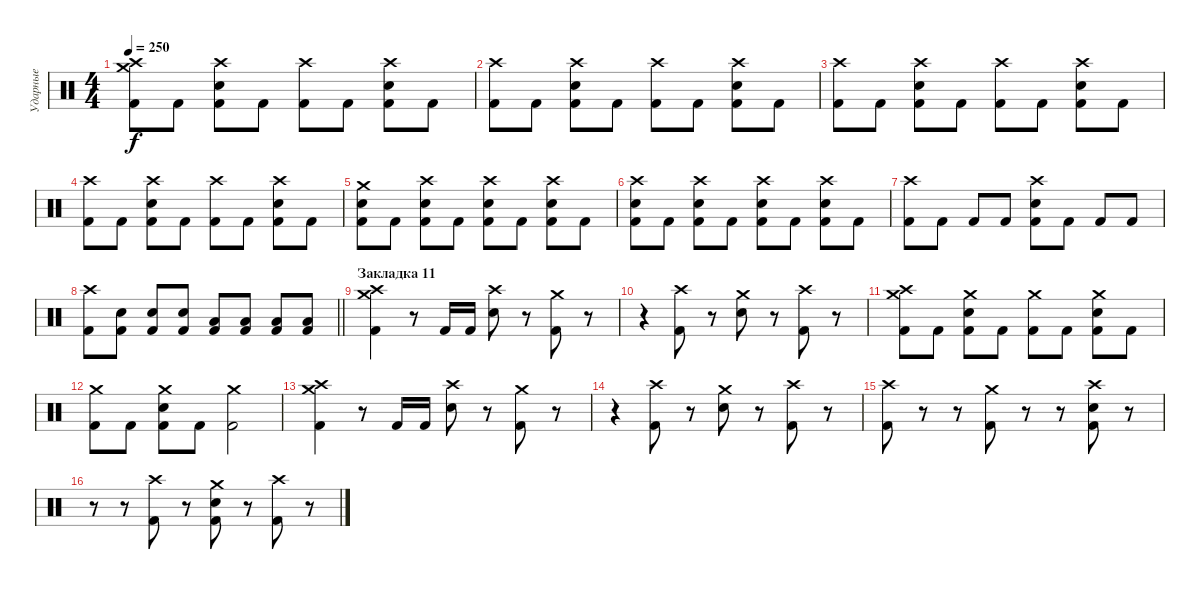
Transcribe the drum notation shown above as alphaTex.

\track ("Ударные" "Ударные") {instrument percussion}
\staff {score}
\articulation defaults
\ts (4 4)
\tempo 250
\clef neutral
\ks c
("Crash medium (hit)" "Crash high (hit)" "Kick (hit) 2").8{dy f} "Kick (hit) 2".8 ("Crash high (hit)" "Electric Snare (hit)" "Kick (hit) 2").8 "Kick (hit) 2".8 ("Crash high (hit)" "Kick (hit) 2").8 "Kick (hit) 2".8 ("Crash high (hit)" "Electric Snare (hit)" "Kick (hit) 2").8 "Kick (hit) 2".8 |
("Crash high (hit)" "Kick (hit) 2").8 "Kick (hit) 2".8 ("Crash high (hit)" "Electric Snare (hit)" "Kick (hit) 2").8 "Kick (hit) 2".8 ("Crash high (hit)" "Kick (hit) 2").8 "Kick (hit) 2".8 ("Crash high (hit)" "Electric Snare (hit)" "Kick (hit) 2").8 "Kick (hit) 2".8 |
("Crash high (hit)" "Kick (hit) 2").8 "Kick (hit) 2".8 ("Crash high (hit)" "Electric Snare (hit)" "Kick (hit) 2").8 "Kick (hit) 2".8 ("Crash high (hit)" "Kick (hit) 2").8 "Kick (hit) 2".8 ("Crash high (hit)" "Electric Snare (hit)" "Kick (hit) 2").8 "Kick (hit) 2".8 |
("Crash high (hit)" "Kick (hit) 2").8 "Kick (hit) 2".8 ("Crash high (hit)" "Electric Snare (hit)" "Kick (hit) 2").8 "Kick (hit) 2".8 ("Crash high (hit)" "Kick (hit) 2").8 "Kick (hit) 2".8 ("Crash high (hit)" "Electric Snare (hit)" "Kick (hit) 2").8 "Kick (hit) 2".8 |
("Crash medium (hit)" "Electric Snare (hit)" "Kick (hit) 2").8 "Kick (hit) 2".8 ("Crash high (hit)" "Electric Snare (hit)" "Kick (hit) 2").8 "Kick (hit) 2".8 ("Crash high (hit)" "Electric Snare (hit)" "Kick (hit) 2").8 "Kick (hit) 2".8 ("Crash high (hit)" "Electric Snare (hit)" "Kick (hit) 2").8 "Kick (hit) 2".8 |
("Crash high (hit)" "Electric Snare (hit)" "Kick (hit) 2").8 "Kick (hit) 2".8 ("Crash high (hit)" "Electric Snare (hit)" "Kick (hit) 2").8 "Kick (hit) 2".8 ("Crash high (hit)" "Electric Snare (hit)" "Kick (hit) 2").8 "Kick (hit) 2".8 ("Crash high (hit)" "Electric Snare (hit)" "Kick (hit) 2").8 "Kick (hit) 2".8 |
("Crash high (hit)" "Kick (hit) 2").8 "Kick (hit) 2".8 "Kick (hit) 2".8 "Kick (hit) 2".8 ("Crash high (hit)" "Electric Snare (hit)" "Kick (hit) 2").8 "Kick (hit) 2".8 "Kick (hit) 2".8 "Kick (hit) 2".8 |
\barLineRight lightlight
("Crash high (hit)" "Kick (hit) 2").8 ("Electric Snare (hit)" "Kick (hit) 2").8 ("Electric Snare (hit)" "Kick (hit) 2").8 ("Electric Snare (hit)" "Kick (hit) 2").8 ("Low Tom (hit)" "Kick (hit) 2").8 ("Low Tom (hit)" "Kick (hit) 2").8 ("Low Floor Tom (hit)" "Kick (hit) 2").8 ("Low Floor Tom (hit)" "Kick (hit) 2").8 |
\section ("" "Закладка 11")
("Crash medium (hit)" "Crash high (hit)" "Kick (hit) 2").4 r.8 "Kick (hit) 2".16 "Kick (hit) 2".16 ("Crash high (hit)" "Electric Snare (hit)").8 r.8 ("Crash medium (hit)" "Kick (hit) 2").8 r.8 |
r.4 ("Crash high (hit)" "Kick (hit) 2").8 r.8 ("Crash medium (hit)" "Electric Snare (hit)").8 r.8 ("Crash high (hit)" "Kick (hit) 2").8 r.8 |
("Crash medium (hit)" "Crash high (hit)" "Kick (hit) 2").8 "Kick (hit) 2".8 ("Crash medium (hit)" "Electric Snare (hit)" "Kick (hit) 2").8 "Kick (hit) 2".8 ("Crash medium (hit)" "Kick (hit) 2").8 "Kick (hit) 2".8 ("Crash medium (hit)" "Electric Snare (hit)" "Kick (hit) 2").8 "Kick (hit) 2".8 |
("Crash medium (hit)" "Kick (hit) 2").8 "Kick (hit) 2".8 ("Crash medium (hit)" "Electric Snare (hit)" "Kick (hit) 2").8 "Kick (hit) 2".8 ("Crash medium (hit)" "Kick (hit) 2").2 |
("Crash medium (hit)" "Crash high (hit)" "Kick (hit) 2").4 r.8 "Kick (hit) 2".16 "Kick (hit) 2".16 ("Crash high (hit)" "Electric Snare (hit)").8 r.8 ("Crash medium (hit)" "Kick (hit) 2").8 r.8 |
r.4 ("Crash high (hit)" "Kick (hit) 2").8 r.8 ("Crash medium (hit)" "Electric Snare (hit)").8 r.8 ("Crash high (hit)" "Kick (hit) 2").8 r.8 |
("Crash high (hit)" "Kick (hit) 2").8 r.8 r.8 ("Crash medium (hit)" "Kick (hit) 2").8 r.8 r.8 ("Crash high (hit)" "Electric Snare (hit)" "Kick (hit) 2").8 r.8 |
r.8 r.8 ("Crash high (hit)" "Kick (hit) 2").8 r.8 ("Crash medium (hit)" "Electric Snare (hit)" "Kick (hit) 2").8 r.8 ("Crash high (hit)" "Kick (hit) 2").8 r.8
